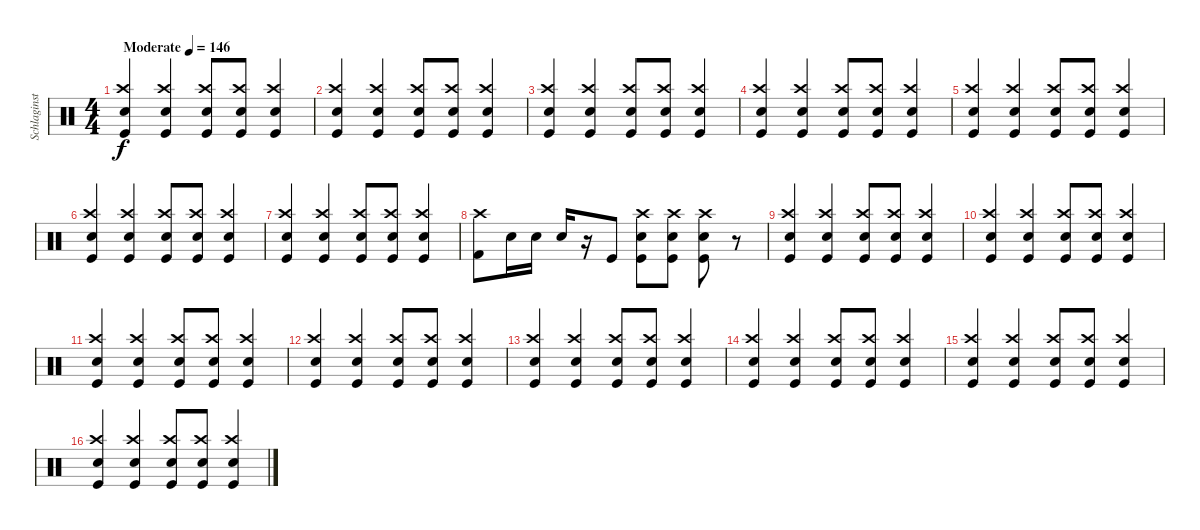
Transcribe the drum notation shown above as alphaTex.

\track ("Schlaginstrumente - Auswahl" "Schlaginst") {instrument percussion}
\staff {score}
\articulation defaults
\ts (4 4)
\tempo (146 "Moderate")
\clef neutral
\ks c
("Snare (hit) 2" "Crash high (hit)" "Kick (hit)").4{dy f} ("Snare (hit) 2" "Crash high (hit)" "Kick (hit)").4 ("Snare (hit) 2" "Crash high (hit)" "Kick (hit)").8 ("Snare (hit) 2" "Crash high (hit)" "Kick (hit)").8 ("Snare (hit) 2" "Crash high (hit)" "Kick (hit)").4 |
("Snare (hit) 2" "Crash high (hit)" "Kick (hit)").4 ("Snare (hit) 2" "Crash high (hit)" "Kick (hit)").4 ("Snare (hit) 2" "Crash high (hit)" "Kick (hit)").8 ("Snare (hit) 2" "Crash high (hit)" "Kick (hit)").8 ("Snare (hit) 2" "Crash high (hit)" "Kick (hit)").4 |
("Snare (hit) 2" "Crash high (hit)" "Kick (hit)").4 ("Snare (hit) 2" "Crash high (hit)" "Kick (hit)").4 ("Snare (hit) 2" "Crash high (hit)" "Kick (hit)").8 ("Snare (hit) 2" "Crash high (hit)" "Kick (hit)").8 ("Snare (hit) 2" "Crash high (hit)" "Kick (hit)").4 |
("Snare (hit) 2" "Crash high (hit)" "Kick (hit)").4 ("Snare (hit) 2" "Crash high (hit)" "Kick (hit)").4 ("Snare (hit) 2" "Crash high (hit)" "Kick (hit)").8 ("Snare (hit) 2" "Crash high (hit)" "Kick (hit)").8 ("Snare (hit) 2" "Crash high (hit)" "Kick (hit)").4 |
("Snare (hit) 2" "Crash high (hit)" "Kick (hit)").4 ("Snare (hit) 2" "Crash high (hit)" "Kick (hit)").4 ("Snare (hit) 2" "Crash high (hit)" "Kick (hit)").8 ("Snare (hit) 2" "Crash high (hit)" "Kick (hit)").8 ("Snare (hit) 2" "Crash high (hit)" "Kick (hit)").4 |
("Snare (hit) 2" "Crash high (hit)" "Kick (hit)").4 ("Snare (hit) 2" "Crash high (hit)" "Kick (hit)").4 ("Snare (hit) 2" "Crash high (hit)" "Kick (hit)").8 ("Snare (hit) 2" "Crash high (hit)" "Kick (hit)").8 ("Snare (hit) 2" "Crash high (hit)" "Kick (hit)").4 |
("Snare (hit) 2" "Crash high (hit)" "Kick (hit)").4 ("Snare (hit) 2" "Crash high (hit)" "Kick (hit)").4 ("Snare (hit) 2" "Crash high (hit)" "Kick (hit)").8 ("Snare (hit) 2" "Crash high (hit)" "Kick (hit)").8 ("Snare (hit) 2" "Crash high (hit)" "Kick (hit)").4 |
("Kick (hit) 2" "Crash high (hit)").8 "Electric Snare (hit)".16 "Electric Snare (hit)".16 "Electric Snare (hit)".16 r.16 "Kick (hit)".8 ("Crash high (hit)" "Electric Snare (hit)" "Kick (hit)").8 ("Crash high (hit)" "Electric Snare (hit)" "Kick (hit)").8 ("Crash high (hit)" "Electric Snare (hit)" "Kick (hit)").8 r.8 |
("Snare (hit) 2" "Crash high (hit)" "Kick (hit)").4 ("Snare (hit) 2" "Crash high (hit)" "Kick (hit)").4 ("Snare (hit) 2" "Crash high (hit)" "Kick (hit)").8 ("Snare (hit) 2" "Crash high (hit)" "Kick (hit)").8 ("Snare (hit) 2" "Crash high (hit)" "Kick (hit)").4 |
("Snare (hit) 2" "Crash high (hit)" "Kick (hit)").4 ("Snare (hit) 2" "Crash high (hit)" "Kick (hit)").4 ("Snare (hit) 2" "Crash high (hit)" "Kick (hit)").8 ("Snare (hit) 2" "Crash high (hit)" "Kick (hit)").8 ("Snare (hit) 2" "Crash high (hit)" "Kick (hit)").4 |
("Snare (hit) 2" "Crash high (hit)" "Kick (hit)").4 ("Snare (hit) 2" "Crash high (hit)" "Kick (hit)").4 ("Snare (hit) 2" "Crash high (hit)" "Kick (hit)").8 ("Snare (hit) 2" "Crash high (hit)" "Kick (hit)").8 ("Snare (hit) 2" "Crash high (hit)" "Kick (hit)").4 |
("Snare (hit) 2" "Crash high (hit)" "Kick (hit)").4 ("Snare (hit) 2" "Crash high (hit)" "Kick (hit)").4 ("Snare (hit) 2" "Crash high (hit)" "Kick (hit)").8 ("Snare (hit) 2" "Crash high (hit)" "Kick (hit)").8 ("Snare (hit) 2" "Crash high (hit)" "Kick (hit)").4 |
("Snare (hit) 2" "Crash high (hit)" "Kick (hit)").4 ("Snare (hit) 2" "Crash high (hit)" "Kick (hit)").4 ("Snare (hit) 2" "Crash high (hit)" "Kick (hit)").8 ("Snare (hit) 2" "Crash high (hit)" "Kick (hit)").8 ("Snare (hit) 2" "Crash high (hit)" "Kick (hit)").4 |
("Snare (hit) 2" "Crash high (hit)" "Kick (hit)").4 ("Snare (hit) 2" "Crash high (hit)" "Kick (hit)").4 ("Snare (hit) 2" "Crash high (hit)" "Kick (hit)").8 ("Snare (hit) 2" "Crash high (hit)" "Kick (hit)").8 ("Snare (hit) 2" "Crash high (hit)" "Kick (hit)").4 |
("Snare (hit) 2" "Crash high (hit)" "Kick (hit)").4 ("Snare (hit) 2" "Crash high (hit)" "Kick (hit)").4 ("Snare (hit) 2" "Crash high (hit)" "Kick (hit)").8 ("Snare (hit) 2" "Crash high (hit)" "Kick (hit)").8 ("Snare (hit) 2" "Crash high (hit)" "Kick (hit)").4 |
("Snare (hit) 2" "Crash high (hit)" "Kick (hit)").4 ("Snare (hit) 2" "Crash high (hit)" "Kick (hit)").4 ("Snare (hit) 2" "Crash high (hit)" "Kick (hit)").8 ("Snare (hit) 2" "Crash high (hit)" "Kick (hit)").8 ("Snare (hit) 2" "Crash high (hit)" "Kick (hit)").4
